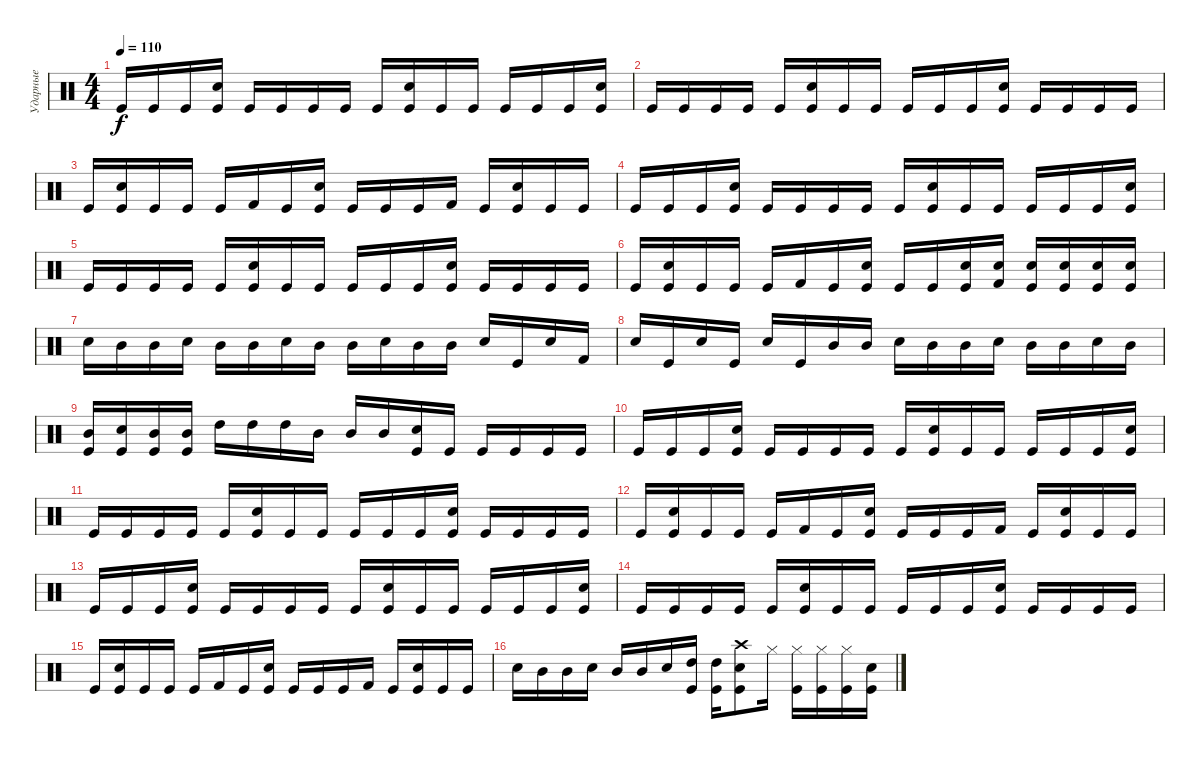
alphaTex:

\track ("Ударные" "Ударные") {instrument percussion}
\staff {score}
\articulation defaults
\ts (4 4)
\tempo 110
\clef neutral
\ks c "Kick (hit)".16{dy f} "Kick (hit)".16 "Kick (hit)".16
("Electric Snare (hit)" "Kick (hit)").16 "Kick (hit)".16 "Kick (hit)".16 "Kick (hit)".16 "Kick (hit)".16 "Kick (hit)".16 ("Electric Snare (hit)" "Kick (hit)").16 "Kick (hit)".16 "Kick (hit)".16 "Kick (hit)".16 "Kick (hit)".16 "Kick (hit)".16 ("Electric Snare (hit)" "Kick (hit)").16 |
"Kick (hit)".16 "Kick (hit)".16 "Kick (hit)".16 "Kick (hit)".16 "Kick (hit)".16 ("Electric Snare (hit)" "Kick (hit)").16 "Kick (hit)".16 "Kick (hit)".16 "Kick (hit)".16 "Kick (hit)".16 "Kick (hit)".16 ("Electric Snare (hit)" "Kick (hit)").16 "Kick (hit)".16 "Kick (hit)".16 "Kick (hit)".16 "Kick (hit)".16 |
"Kick (hit)".16 ("Electric Snare (hit)" "Kick (hit)").16 "Kick (hit)".16 "Kick (hit)".16 "Kick (hit)".16 "Kick (hit) 2".16 "Kick (hit)".16 ("Electric Snare (hit)" "Kick (hit)").16 "Kick (hit)".16 "Kick (hit)".16 "Kick (hit)".16 "Kick (hit) 2".16 "Kick (hit)".16 ("Electric Snare (hit)" "Kick (hit)").16 "Kick (hit)".16 "Kick (hit)".16 |
"Kick (hit)".16 "Kick (hit)".16 "Kick (hit)".16 ("Electric Snare (hit)" "Kick (hit)").16 "Kick (hit)".16 "Kick (hit)".16 "Kick (hit)".16 "Kick (hit)".16 "Kick (hit)".16 ("Electric Snare (hit)" "Kick (hit)").16 "Kick (hit)".16 "Kick (hit)".16 "Kick (hit)".16 "Kick (hit)".16 "Kick (hit)".16 ("Electric Snare (hit)" "Kick (hit)").16 |
"Kick (hit)".16 "Kick (hit)".16 "Kick (hit)".16 "Kick (hit)".16 "Kick (hit)".16 ("Electric Snare (hit)" "Kick (hit)").16 "Kick (hit)".16 "Kick (hit)".16 "Kick (hit)".16 "Kick (hit)".16 "Kick (hit)".16 ("Electric Snare (hit)" "Kick (hit)").16 "Kick (hit)".16 "Kick (hit)".16 "Kick (hit)".16 "Kick (hit)".16 |
"Kick (hit)".16 ("Electric Snare (hit)" "Kick (hit)").16 "Kick (hit)".16 "Kick (hit)".16 "Kick (hit)".16 "Kick (hit) 2".16 "Kick (hit)".16 ("Electric Snare (hit)" "Kick (hit)").16 "Kick (hit)".16 "Kick (hit)".16 ("Electric Snare (hit)" "Kick (hit)").16 ("Electric Snare (hit)" "Kick (hit) 2").16 ("Electric Snare (hit)" "Kick (hit)").16 ("Electric Snare (hit)" "Kick (hit)").16 ("Electric Snare (hit)" "Kick (hit)").16 ("Electric Snare (hit)" "Kick (hit)").16 |
"Electric Snare (hit)".16 "Mid Tom (hit)".16 "Mid Tom (hit)".16 "Electric Snare (hit)".16 "Mid Tom (hit)".16 "Mid Tom (hit)".16 "Electric Snare (hit)".16 "Mid Tom (hit)".16 "Mid Tom (hit)".16 "Electric Snare (hit)".16 "Mid Tom (hit)".16 "Mid Tom (hit)".16 "Electric Snare (hit)".16 "Kick (hit)".16 "Electric Snare (hit)".16 "Kick (hit) 2".16 |
"Electric Snare (hit)".16 "Kick (hit)".16 "Electric Snare (hit)".16 "Kick (hit)".16 "Electric Snare (hit)".16 "Kick (hit)".16 "Mid Tom (hit)".16 "Mid Tom (hit)".16 "Electric Snare (hit)".16 "Mid Tom (hit)".16 "Mid Tom (hit)".16 "Electric Snare (hit)".16 "Mid Tom (hit)".16 "Mid Tom (hit)".16 "Electric Snare (hit)".16 "Mid Tom (hit)".16 |
("Mid Tom (hit)" "Kick (hit)").16 ("Electric Snare (hit)" "Kick (hit)").16 ("Mid Tom (hit)" "Kick (hit)").16 ("Mid Tom (hit)" "Kick (hit)").16 "High Tom (hit)".16 "High Tom (hit)".16 "High Tom (hit)".16 "Mid Tom (hit)".16 "Mid Tom (hit)".16 "Mid Tom (hit)".16 ("Electric Snare (hit)" "Kick (hit)").16 "Kick (hit)".16 "Kick (hit)".16 "Kick (hit)".16 "Kick (hit)".16 "Kick (hit)".16 |
"Kick (hit)".16 "Kick (hit)".16 "Kick (hit)".16 ("Electric Snare (hit)" "Kick (hit)").16 "Kick (hit)".16 "Kick (hit)".16 "Kick (hit)".16 "Kick (hit)".16 "Kick (hit)".16 ("Electric Snare (hit)" "Kick (hit)").16 "Kick (hit)".16 "Kick (hit)".16 "Kick (hit)".16 "Kick (hit)".16 "Kick (hit)".16 ("Electric Snare (hit)" "Kick (hit)").16 |
"Kick (hit)".16 "Kick (hit)".16 "Kick (hit)".16 "Kick (hit)".16 "Kick (hit)".16 ("Electric Snare (hit)" "Kick (hit)").16 "Kick (hit)".16 "Kick (hit)".16 "Kick (hit)".16 "Kick (hit)".16 "Kick (hit)".16 ("Electric Snare (hit)" "Kick (hit)").16 "Kick (hit)".16 "Kick (hit)".16 "Kick (hit)".16 "Kick (hit)".16 |
"Kick (hit)".16 ("Electric Snare (hit)" "Kick (hit)").16 "Kick (hit)".16 "Kick (hit)".16 "Kick (hit)".16 "Kick (hit) 2".16 "Kick (hit)".16 ("Electric Snare (hit)" "Kick (hit)").16 "Kick (hit)".16 "Kick (hit)".16 "Kick (hit)".16 "Kick (hit) 2".16 "Kick (hit)".16 ("Electric Snare (hit)" "Kick (hit)").16 "Kick (hit)".16 "Kick (hit)".16 |
"Kick (hit)".16 "Kick (hit)".16 "Kick (hit)".16 ("Electric Snare (hit)" "Kick (hit)").16 "Kick (hit)".16 "Kick (hit)".16 "Kick (hit)".16 "Kick (hit)".16 "Kick (hit)".16 ("Electric Snare (hit)" "Kick (hit)").16 "Kick (hit)".16 "Kick (hit)".16 "Kick (hit)".16 "Kick (hit)".16 "Kick (hit)".16 ("Electric Snare (hit)" "Kick (hit)").16 |
"Kick (hit)".16 "Kick (hit)".16 "Kick (hit)".16 "Kick (hit)".16 "Kick (hit)".16 ("Electric Snare (hit)" "Kick (hit)").16 "Kick (hit)".16 "Kick (hit)".16 "Kick (hit)".16 "Kick (hit)".16 "Kick (hit)".16 ("Electric Snare (hit)" "Kick (hit)").16 "Kick (hit)".16 "Kick (hit)".16 "Kick (hit)".16 "Kick (hit)".16 |
"Kick (hit)".16 ("Electric Snare (hit)" "Kick (hit)").16 "Kick (hit)".16 "Kick (hit)".16 "Kick (hit)".16 "Kick (hit) 2".16 "Kick (hit)".16 ("Electric Snare (hit)" "Kick (hit)").16 "Kick (hit)".16 "Kick (hit)".16 "Kick (hit)".16 "Kick (hit) 2".16 "Kick (hit)".16 ("Electric Snare (hit)" "Kick (hit)").16 "Kick (hit)".16 "Kick (hit)".16 |
"Electric Snare (hit)".16 "Mid Tom (hit)".16 "Mid Tom (hit)".16 "Electric Snare (hit)".16 "Mid Tom (hit)".16 "Mid Tom (hit)".16 "Electric Snare (hit)".16 ("High Tom (hit)" "Kick (hit)").16 ("High Tom (hit)" "Kick (hit)").16 ("Crash high (hit)" "Electric Snare (hit)" "Kick (hit)").8 "Hi-Hat (closed)".16 ("Hi-Hat (closed)" "Kick (hit)").16 ("Hi-Hat (closed)" "Kick (hit)").16 ("Hi-Hat (closed)" "Kick (hit)").16 ("Electric Snare (hit)" "Kick (hit)").16
